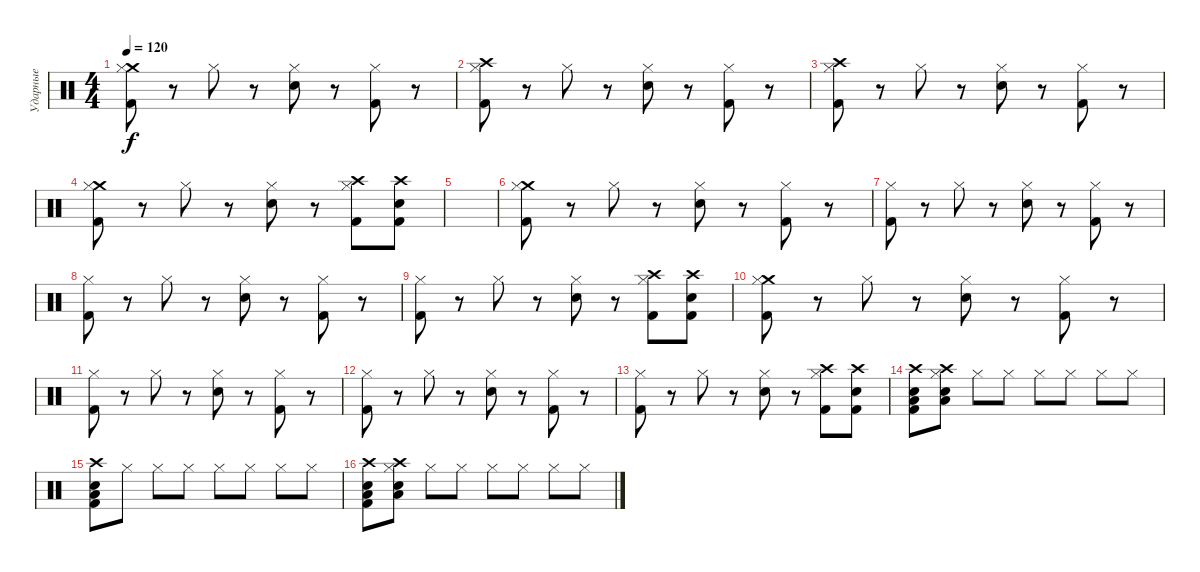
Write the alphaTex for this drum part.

\track ("Ударные" "Ударные") {instrument percussion}
\staff {score}
\articulation defaults
\ts (4 4)
\tempo 120
\clef neutral
\ks c
("Crash medium (hit)" "Hi-Hat (closed)" "Kick (hit) 2").8{dy f} r.8 "Hi-Hat (closed)".8 r.8 ("Snare (hit) 2" "Hi-Hat (closed)").8 r.8 ("Hi-Hat (closed)" "Kick (hit) 2").8 r.8 |
("Crash high (hit)" "Hi-Hat (closed)" "Kick (hit) 2").8 r.8 "Hi-Hat (closed)".8 r.8 ("Snare (hit) 2" "Hi-Hat (closed)").8 r.8 ("Hi-Hat (closed)" "Kick (hit) 2").8 r.8 |
("Crash high (hit)" "Hi-Hat (closed)" "Kick (hit) 2").8 r.8 "Hi-Hat (closed)".8 r.8 ("Snare (hit) 2" "Hi-Hat (closed)").8 r.8 ("Hi-Hat (closed)" "Kick (hit) 2").8 r.8 |
("Crash medium (hit)" "Hi-Hat (closed)" "Kick (hit) 2").8 r.8 "Hi-Hat (closed)".8 r.8 ("Snare (hit) 2" "Hi-Hat (closed)").8 r.8 ("Hi-Hat (closed)" "Crash high (hit)" "Kick (hit) 2").8 ("Snare (hit) 2" "Crash high (hit)" "Kick (hit) 2").8 |
|
("Crash medium (hit)" "Hi-Hat (closed)" "Kick (hit) 2").8 r.8 "Hi-Hat (closed)".8 r.8 ("Snare (hit) 2" "Hi-Hat (closed)").8 r.8 ("Hi-Hat (closed)" "Kick (hit) 2").8 r.8 |
("Hi-Hat (closed)" "Kick (hit) 2").8 r.8 "Hi-Hat (closed)".8 r.8 ("Snare (hit) 2" "Hi-Hat (closed)").8 r.8 ("Hi-Hat (closed)" "Kick (hit) 2").8 r.8 |
("Hi-Hat (closed)" "Kick (hit) 2").8 r.8 "Hi-Hat (closed)".8 r.8 ("Snare (hit) 2" "Hi-Hat (closed)").8 r.8 ("Hi-Hat (closed)" "Kick (hit) 2").8 r.8 |
("Hi-Hat (closed)" "Kick (hit) 2").8 r.8 "Hi-Hat (closed)".8 r.8 ("Snare (hit) 2" "Hi-Hat (closed)").8 r.8 ("Hi-Hat (closed)" "Crash high (hit)" "Kick (hit) 2").8 ("Snare (hit) 2" "Crash high (hit)" "Kick (hit) 2").8 |
("Crash medium (hit)" "Hi-Hat (closed)" "Kick (hit) 2").8 r.8 "Hi-Hat (closed)".8 r.8 ("Snare (hit) 2" "Hi-Hat (closed)").8 r.8 ("Hi-Hat (closed)" "Kick (hit) 2").8 r.8 |
("Hi-Hat (closed)" "Kick (hit) 2").8 r.8 "Hi-Hat (closed)".8 r.8 ("Snare (hit) 2" "Hi-Hat (closed)").8 r.8 ("Hi-Hat (closed)" "Kick (hit) 2").8 r.8 |
("Hi-Hat (closed)" "Kick (hit) 2").8 r.8 "Hi-Hat (closed)".8 r.8 ("Snare (hit) 2" "Hi-Hat (closed)").8 r.8 ("Hi-Hat (closed)" "Kick (hit) 2").8 r.8 |
("Hi-Hat (closed)" "Kick (hit) 2").8 r.8 "Hi-Hat (closed)".8 r.8 ("Snare (hit) 2" "Hi-Hat (closed)").8 r.8 ("Hi-Hat (closed)" "Crash high (hit)" "Kick (hit) 2").8 ("Snare (hit) 2" "Crash high (hit)" "Kick (hit) 2").8 |
("Kick (hit) 2" "Snare (hit) 2" "Low Floor Tom (hit)" "Crash high (hit)").8 ("Hi-Hat (closed)" "Snare (hit) 2" "Low Floor Tom (hit)" "Crash high (hit)").8 "Hi-Hat (closed)".8 "Hi-Hat (closed)".8 "Hi-Hat (closed)".8 "Hi-Hat (closed)".8 "Hi-Hat (closed)".8 "Hi-Hat (closed)".8 |
("Kick (hit) 2" "Snare (hit) 2" "Low Floor Tom (hit)" "Crash high (hit)").8 "Hi-Hat (closed)".8 "Hi-Hat (closed)".8 "Hi-Hat (closed)".8 "Hi-Hat (closed)".8 "Hi-Hat (closed)".8 "Hi-Hat (closed)".8 "Hi-Hat (closed)".8 |
("Kick (hit) 2" "Snare (hit) 2" "Low Floor Tom (hit)" "Crash high (hit)").8 ("Hi-Hat (closed)" "Snare (hit) 2" "Low Floor Tom (hit)" "Crash high (hit)").8 "Hi-Hat (closed)".8 "Hi-Hat (closed)".8 "Hi-Hat (closed)".8 "Hi-Hat (closed)".8 "Hi-Hat (closed)".8 "Hi-Hat (closed)".8
